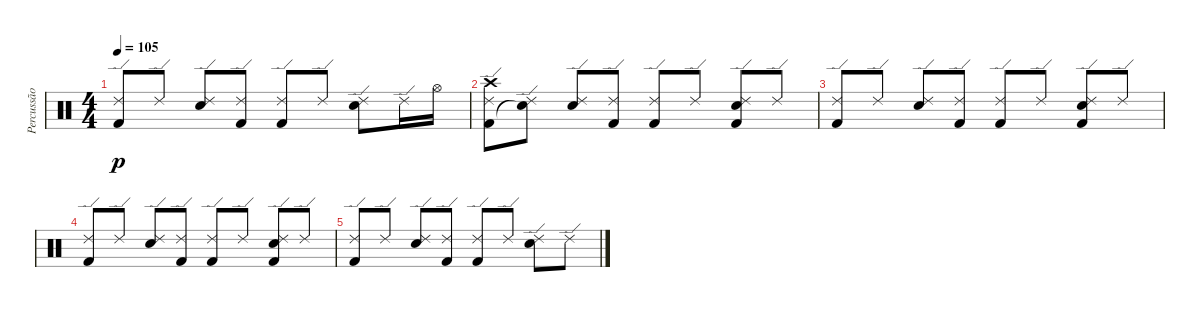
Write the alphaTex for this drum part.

\track ("Percussão" "Percussão") {instrument percussion}
\staff {score}
\articulation defaults
\ts (4 4)
\tempo 105
\clef neutral
\ks c
("Kick (hit) 2" "Ride (edge) 2").8{dy p} "Ride (edge) 2".8 ("Ride (edge) 2" "Electric Snare (hit)").8 ("Kick (hit) 2" "Ride (edge) 2").8 ("Kick (hit) 2" "Ride (edge) 2").8 "Ride (edge) 2".8 ("Ride (edge) 2" "Electric Snare (hit)").8 "Ride (edge) 2".16 "Hi-Hat (open)".16 |
("Kick (hit) 2" "Crash high (hit)" "Ride (edge) 2").8 ("Snare (hit)"{t} "Ride (edge) 2").8 ("Ride (edge) 2" "Electric Snare (hit)").8 ("Kick (hit) 2" "Ride (edge) 2").8 ("Kick (hit) 2" "Ride (edge) 2").8 "Ride (edge) 2".8 ("Kick (hit) 2" "Ride (edge) 2" "Electric Snare (hit)").8 "Ride (edge) 2".8 |
("Kick (hit) 2" "Ride (edge) 2").8 "Ride (edge) 2".8 ("Ride (edge) 2" "Electric Snare (hit)").8 ("Kick (hit) 2" "Ride (edge) 2").8 ("Kick (hit) 2" "Ride (edge) 2").8 "Ride (edge) 2".8 ("Kick (hit) 2" "Ride (edge) 2" "Electric Snare (hit)").8 "Ride (edge) 2".8 |
("Kick (hit) 2" "Ride (edge) 2").8 "Ride (edge) 2".8 ("Ride (edge) 2" "Electric Snare (hit)").8 ("Kick (hit) 2" "Ride (edge) 2").8 ("Kick (hit) 2" "Ride (edge) 2").8 "Ride (edge) 2".8 ("Kick (hit) 2" "Ride (edge) 2" "Electric Snare (hit)").8 "Ride (edge) 2".8 |
("Kick (hit) 2" "Ride (edge) 2").8 "Ride (edge) 2".8 ("Ride (edge) 2" "Electric Snare (hit)").8 ("Kick (hit) 2" "Ride (edge) 2").8 ("Kick (hit) 2" "Ride (edge) 2").8 "Ride (edge) 2".8 ("Ride (edge) 2" "Electric Snare (hit)").8 "Ride (edge) 2".8
